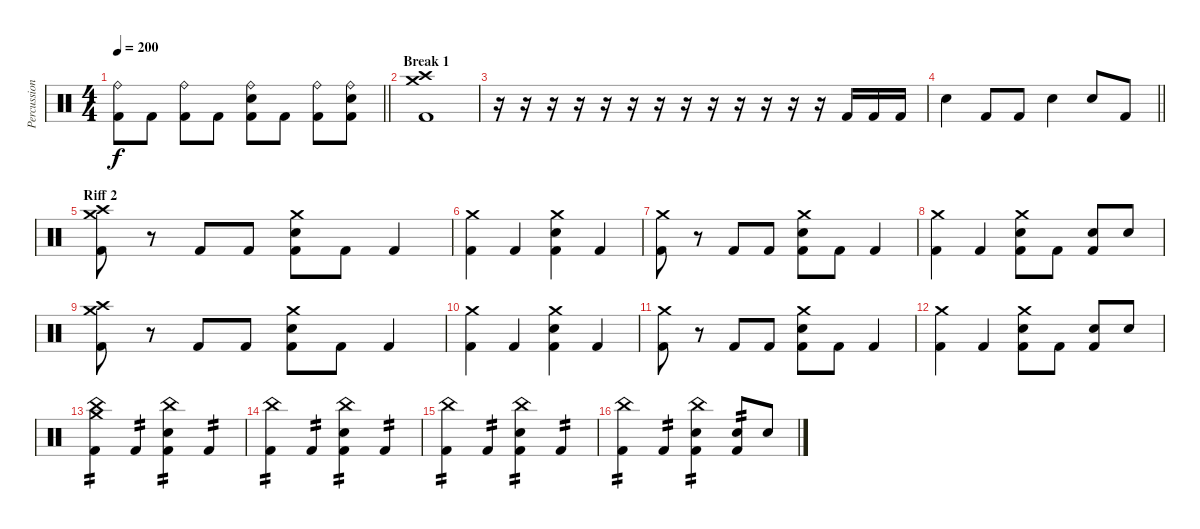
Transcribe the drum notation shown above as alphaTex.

\track ("Percussion" "Percussion") {instrument percussion}
\staff {score}
\articulation defaults
\ts (4 4)
\tempo 200
\clef neutral
\barLineRight lightlight
\ks c
("Ride (bell)" "Kick (hit) 2").8{dy f} "Kick (hit) 2".8 ("Ride (bell)" "Kick (hit) 2").8 "Kick (hit) 2".8 ("Ride (bell)" "Electric Snare (hit)" "Kick (hit) 2").8 "Kick (hit) 2".8 ("Ride (bell)" "Kick (hit) 2").8 ("Ride (bell)" "Electric Snare (hit)" "Kick (hit) 2").8 |
\section ("" "Break 1")
("Crash high (hit)" "Crash medium (hit)" "Kick (hit) 2").1 |
r.16 r.16 r.16 r.16 r.16 r.16 r.16 r.16 r.16 r.16 r.16 r.16 r.16 "Kick (hit) 2".16 "Kick (hit) 2".16 "Kick (hit) 2".16 |
\barLineRight lightlight "Electric Snare (hit)".4 "Kick (hit) 2".8 "Kick (hit) 2".8 "Electric Snare (hit)".4 "Electric Snare (hit)".8 "Kick (hit) 2".8
|
\section ("" "Riff 2")
("Crash high (hit)" "Crash medium (hit)" "Kick (hit) 2").8 r.8 "Kick (hit) 2".8 "Kick (hit) 2".8 ("Crash medium (hit)" "Electric Snare (hit)" "Kick (hit) 2").8 "Kick (hit) 2".8 "Kick (hit) 2".4 |
("Crash medium (hit)" "Kick (hit) 2").4 "Kick (hit) 2".4 ("Crash medium (hit)" "Electric Snare (hit)" "Kick (hit) 2").4 "Kick (hit) 2".4 |
("Crash medium (hit)" "Kick (hit) 2").8 r.8 "Kick (hit) 2".8 "Kick (hit) 2".8 ("Crash medium (hit)" "Electric Snare (hit)" "Kick (hit) 2").8 "Kick (hit) 2".8 "Kick (hit) 2".4 |
("Crash medium (hit)" "Kick (hit) 2").4 "Kick (hit) 2".4 ("Crash medium (hit)" "Electric Snare (hit)" "Kick (hit) 2").8 "Kick (hit) 2".8 ("Electric Snare (hit)" "Kick (hit) 2").8 "Electric Snare (hit)".8 |
("Crash high (hit)" "Crash medium (hit)" "Kick (hit) 2").8 r.8 "Kick (hit) 2".8 "Kick (hit) 2".8 ("Crash medium (hit)" "Electric Snare (hit)" "Kick (hit) 2").8 "Kick (hit) 2".8 "Kick (hit) 2".4 |
("Crash medium (hit)" "Kick (hit) 2").4 "Kick (hit) 2".4 ("Crash medium (hit)" "Electric Snare (hit)" "Kick (hit) 2").4 "Kick (hit) 2".4 |
("Crash medium (hit)" "Kick (hit) 2").8 r.8 "Kick (hit) 2".8 "Kick (hit) 2".8 ("Crash medium (hit)" "Electric Snare (hit)" "Kick (hit) 2").8 "Kick (hit) 2".8 "Kick (hit) 2".4 |
("Crash medium (hit)" "Kick (hit) 2").4 "Kick (hit) 2".4 ("Crash medium (hit)" "Electric Snare (hit)" "Kick (hit) 2").8 "Kick (hit) 2".8 ("Electric Snare (hit)" "Kick (hit) 2").8 "Electric Snare (hit)".8 |
("Crash medium (hit)" "China (hit)" "Kick (hit) 2").4{tp 2} "Kick (hit) 2".4{tp 2} ("China (hit)" "Electric Snare (hit)" "Kick (hit) 2").4{tp 2} "Kick (hit) 2".4{tp 2} |
("China (hit)" "Kick (hit) 2").4{tp 2} "Kick (hit) 2".4{tp 2} ("China (hit)" "Electric Snare (hit)" "Kick (hit) 2").4{tp 2} "Kick (hit) 2".4{tp 2} |
("China (hit)" "Kick (hit) 2").4{tp 2} "Kick (hit) 2".4{tp 2} ("China (hit)" "Electric Snare (hit)" "Kick (hit) 2").4{tp 2} "Kick (hit) 2".4{tp 2} |
("China (hit)" "Kick (hit) 2").4{tp 2} "Kick (hit) 2".4{tp 2} ("China (hit)" "Electric Snare (hit)" "Kick (hit) 2").4{tp 2} ("Electric Snare (hit)" "Kick (hit) 2").8{tp 2} "Electric Snare (hit)".8
